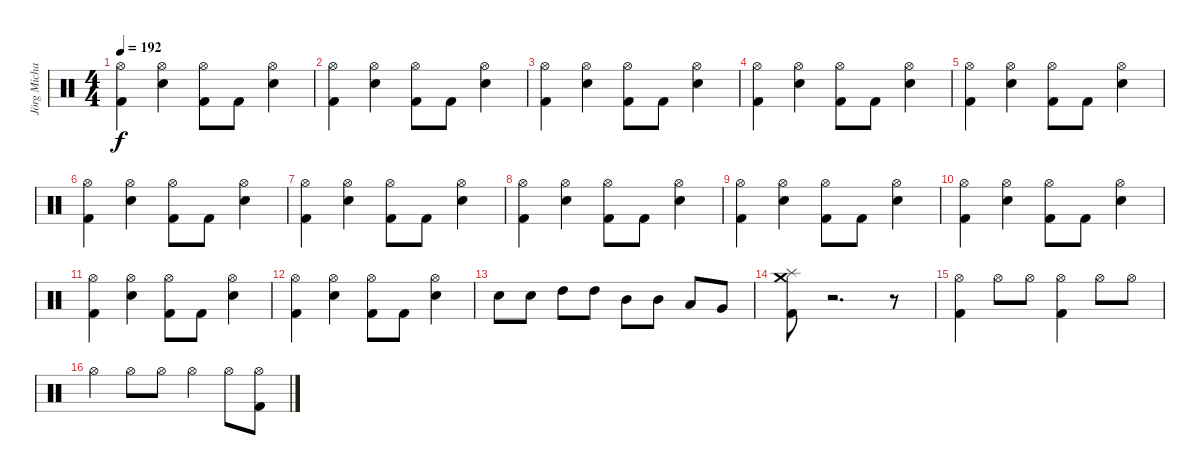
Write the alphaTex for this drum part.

\track ("Jörg Michael" "Jörg Micha") {instrument percussion}
\staff {score}
\articulation defaults
\ts (4 4)
\tempo 192
\clef neutral
\ks c
("Hi-Hat (open)" "Kick (hit) 2").4{dy f} ("Hi-Hat (open)" "Electric Snare (hit)").4 ("Hi-Hat (open)" "Kick (hit) 2").8 "Kick (hit) 2".8 ("Hi-Hat (open)" "Electric Snare (hit)").4 |
("Hi-Hat (open)" "Kick (hit) 2").4 ("Hi-Hat (open)" "Electric Snare (hit)").4 ("Hi-Hat (open)" "Kick (hit) 2").8 "Kick (hit) 2".8 ("Hi-Hat (open)" "Electric Snare (hit)").4 |
("Hi-Hat (open)" "Kick (hit) 2").4 ("Hi-Hat (open)" "Electric Snare (hit)").4 ("Hi-Hat (open)" "Kick (hit) 2").8 "Kick (hit) 2".8 ("Hi-Hat (open)" "Electric Snare (hit)").4 |
("Hi-Hat (open)" "Kick (hit) 2").4 ("Hi-Hat (open)" "Electric Snare (hit)").4 ("Hi-Hat (open)" "Kick (hit) 2").8 "Kick (hit) 2".8 ("Hi-Hat (open)" "Electric Snare (hit)").4 |
("Hi-Hat (open)" "Kick (hit) 2").4 ("Hi-Hat (open)" "Electric Snare (hit)").4 ("Hi-Hat (open)" "Kick (hit) 2").8 "Kick (hit) 2".8 ("Hi-Hat (open)" "Electric Snare (hit)").4 |
("Hi-Hat (open)" "Kick (hit) 2").4 ("Hi-Hat (open)" "Electric Snare (hit)").4 ("Hi-Hat (open)" "Kick (hit) 2").8 "Kick (hit) 2".8 ("Hi-Hat (open)" "Electric Snare (hit)").4 |
("Hi-Hat (open)" "Kick (hit) 2").4 ("Hi-Hat (open)" "Electric Snare (hit)").4 ("Hi-Hat (open)" "Kick (hit) 2").8 "Kick (hit) 2".8 ("Hi-Hat (open)" "Electric Snare (hit)").4 |
("Hi-Hat (open)" "Kick (hit) 2").4 ("Hi-Hat (open)" "Electric Snare (hit)").4 ("Hi-Hat (open)" "Kick (hit) 2").8 "Kick (hit) 2".8 ("Hi-Hat (open)" "Electric Snare (hit)").4 |
("Hi-Hat (open)" "Kick (hit) 2").4 ("Hi-Hat (open)" "Electric Snare (hit)").4 ("Hi-Hat (open)" "Kick (hit) 2").8 "Kick (hit) 2".8 ("Hi-Hat (open)" "Electric Snare (hit)").4 |
("Hi-Hat (open)" "Kick (hit) 2").4 ("Hi-Hat (open)" "Electric Snare (hit)").4 ("Hi-Hat (open)" "Kick (hit) 2").8 "Kick (hit) 2".8 ("Hi-Hat (open)" "Electric Snare (hit)").4 |
("Hi-Hat (open)" "Kick (hit) 2").4 ("Hi-Hat (open)" "Electric Snare (hit)").4 ("Hi-Hat (open)" "Kick (hit) 2").8 "Kick (hit) 2".8 ("Hi-Hat (open)" "Electric Snare (hit)").4 |
("Hi-Hat (open)" "Kick (hit) 2").4 ("Hi-Hat (open)" "Electric Snare (hit)").4 ("Hi-Hat (open)" "Kick (hit) 2").8 "Kick (hit) 2".8 ("Hi-Hat (open)" "Electric Snare (hit)").4 |
"Electric Snare (hit)".8 "Electric Snare (hit)".8 "High Tom (hit)".8 "High Tom (hit)".8 "Mid Tom (hit)".8 "Mid Tom (hit)".8 "Low Tom (hit)".8 "Very Low Tom (hit)".8 |
("Crash medium (hit)" "Splash (hit)" "Kick (hit) 2").8 r.2{d} r.8 |
("Kick (hit) 2" "Hi-Hat (open)").4 "Hi-Hat (open)".8 "Hi-Hat (open)".8 ("Kick (hit) 2" "Hi-Hat (open)").4 "Hi-Hat (open)".8 "Hi-Hat (open)".8 |
"Hi-Hat (open)".4 "Hi-Hat (open)".8 "Hi-Hat (open)".8 "Hi-Hat (open)".4 "Hi-Hat (open)".8 ("Kick (hit) 2" "Hi-Hat (open)").8
